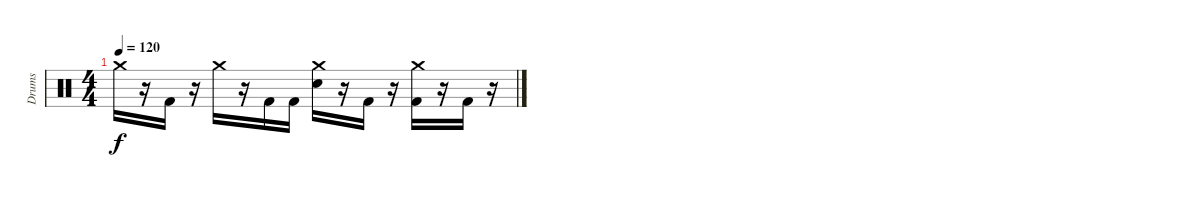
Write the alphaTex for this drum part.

\track ("Drums" "Drums") {instrument percussion}
\staff
\articulation defaults
\ts (4 4)
\tempo 120
\clef neutral
\ks c "Crash medium (hit)".16{dy f}
r.16 "Kick (hit) 2".16 r.16 "Crash medium (hit)".16 r.16 "Kick (hit) 2".16 "Kick (hit) 2".16 ("Crash medium (hit)" "Electric Snare (hit)").16 r.16 "Kick (hit) 2".16 r.16 ("Crash medium (hit)" "Kick (hit) 2").16 r.16 "Kick (hit) 2".16 r.16
